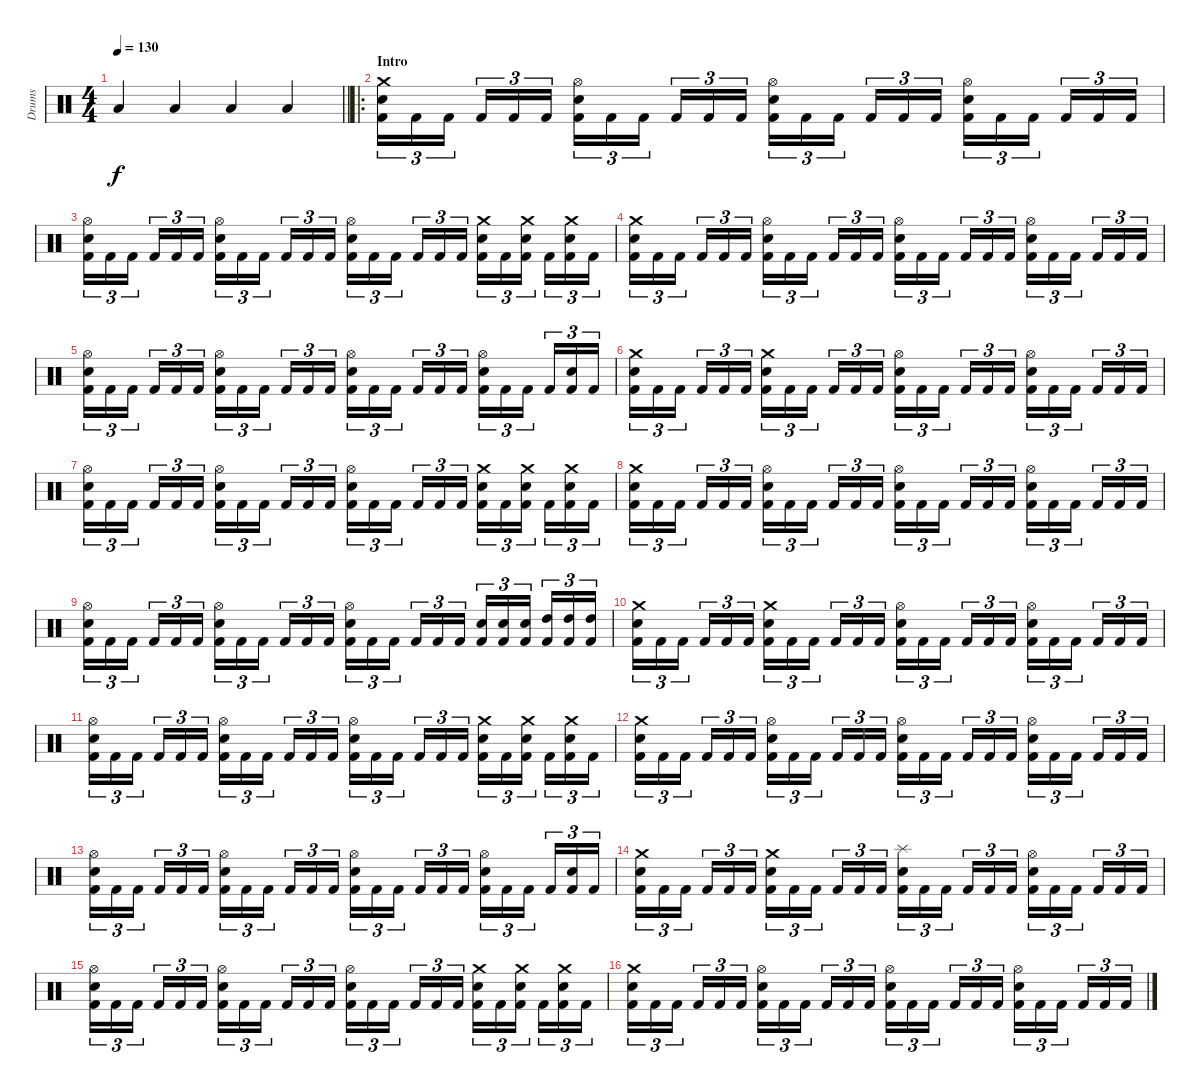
\track ("Drums" "Drums") {instrument percussion}
\staff {score}
\articulation defaults
\ts (4 4)
\tempo 130
\clef neutral
\barLineRight lightlight
\ks c "Low Floor Tom (hit)".4{dy f} "Low Floor Tom (hit)".4 "Low Floor Tom (hit)".4 "Low Floor Tom (hit)".4
|
\ro
\section ("" "Intro")
("Kick (hit) 2" "Electric Snare (hit)" "Crash medium (hit)").16{tu (3 2)} "Kick (hit) 2".16{tu (3 2)} "Kick (hit) 2".16{tu (3 2) beam splitsecondary} "Kick (hit) 2".16{tu (3 2)} "Kick (hit) 2".16{tu (3 2)} "Kick (hit) 2".16{tu (3 2)} ("Kick (hit) 2" "Electric Snare (hit)" "Hi-Hat (open)").16{tu (3 2)} "Kick (hit) 2".16{tu (3 2)} "Kick (hit) 2".16{tu (3 2) beam splitsecondary} "Kick (hit) 2".16{tu (3 2)} "Kick (hit) 2".16{tu (3 2)} "Kick (hit) 2".16{tu (3 2)} ("Kick (hit) 2" "Electric Snare (hit)" "Hi-Hat (open)").16{tu (3 2)} "Kick (hit) 2".16{tu (3 2)} "Kick (hit) 2".16{tu (3 2) beam splitsecondary} "Kick (hit) 2".16{tu (3 2)} "Kick (hit) 2".16{tu (3 2)} "Kick (hit) 2".16{tu (3 2)} ("Kick (hit) 2" "Electric Snare (hit)" "Hi-Hat (open)").16{tu (3 2)} "Kick (hit) 2".16{tu (3 2)} "Kick (hit) 2".16{tu (3 2) beam splitsecondary} "Kick (hit) 2".16{tu (3 2)} "Kick (hit) 2".16{tu (3 2)} "Kick (hit) 2".16{tu (3 2)} |
("Kick (hit) 2" "Electric Snare (hit)" "Hi-Hat (open)").16{tu (3 2)} "Kick (hit) 2".16{tu (3 2)} "Kick (hit) 2".16{tu (3 2) beam splitsecondary} "Kick (hit) 2".16{tu (3 2)} "Kick (hit) 2".16{tu (3 2)} "Kick (hit) 2".16{tu (3 2)} ("Kick (hit) 2" "Electric Snare (hit)" "Hi-Hat (open)").16{tu (3 2)} "Kick (hit) 2".16{tu (3 2)} "Kick (hit) 2".16{tu (3 2) beam splitsecondary} "Kick (hit) 2".16{tu (3 2)} "Kick (hit) 2".16{tu (3 2)} "Kick (hit) 2".16{tu (3 2)} ("Kick (hit) 2" "Electric Snare (hit)" "Hi-Hat (open)").16{tu (3 2)} "Kick (hit) 2".16{tu (3 2)} "Kick (hit) 2".16{tu (3 2) beam splitsecondary} "Kick (hit) 2".16{tu (3 2)} "Kick (hit) 2".16{tu (3 2)} "Kick (hit) 2".16{tu (3 2)} ("Kick (hit) 2" "Electric Snare (hit)" "Crash medium (hit)").16{tu (3 2)} "Kick (hit) 2".16{tu (3 2)} ("Kick (hit) 2" "Electric Snare (hit)" "Crash medium (hit)").16{tu (3 2) beam splitsecondary} "Kick (hit) 2".16{tu (3 2)} ("Kick (hit) 2" "Electric Snare (hit)" "Crash medium (hit)").16{tu (3 2)} "Kick (hit) 2".16{tu (3 2)} |
("Kick (hit) 2" "Electric Snare (hit)" "Crash medium (hit)").16{tu (3 2)} "Kick (hit) 2".16{tu (3 2)} "Kick (hit) 2".16{tu (3 2) beam splitsecondary} "Kick (hit) 2".16{tu (3 2)} "Kick (hit) 2".16{tu (3 2)} "Kick (hit) 2".16{tu (3 2)} ("Kick (hit) 2" "Electric Snare (hit)" "Hi-Hat (open)").16{tu (3 2)} "Kick (hit) 2".16{tu (3 2)} "Kick (hit) 2".16{tu (3 2) beam splitsecondary} "Kick (hit) 2".16{tu (3 2)} "Kick (hit) 2".16{tu (3 2)} "Kick (hit) 2".16{tu (3 2)} ("Kick (hit) 2" "Electric Snare (hit)" "Hi-Hat (open)").16{tu (3 2)} "Kick (hit) 2".16{tu (3 2)} "Kick (hit) 2".16{tu (3 2) beam splitsecondary} "Kick (hit) 2".16{tu (3 2)} "Kick (hit) 2".16{tu (3 2)} "Kick (hit) 2".16{tu (3 2)} ("Kick (hit) 2" "Electric Snare (hit)" "Hi-Hat (open)").16{tu (3 2)} "Kick (hit) 2".16{tu (3 2)} "Kick (hit) 2".16{tu (3 2) beam splitsecondary} "Kick (hit) 2".16{tu (3 2)} "Kick (hit) 2".16{tu (3 2)} "Kick (hit) 2".16{tu (3 2)} |
("Kick (hit) 2" "Electric Snare (hit)" "Hi-Hat (open)").16{tu (3 2)} "Kick (hit) 2".16{tu (3 2)} "Kick (hit) 2".16{tu (3 2) beam splitsecondary} "Kick (hit) 2".16{tu (3 2)} "Kick (hit) 2".16{tu (3 2)} "Kick (hit) 2".16{tu (3 2)} ("Kick (hit) 2" "Electric Snare (hit)" "Hi-Hat (open)").16{tu (3 2)} "Kick (hit) 2".16{tu (3 2)} "Kick (hit) 2".16{tu (3 2) beam splitsecondary} "Kick (hit) 2".16{tu (3 2)} "Kick (hit) 2".16{tu (3 2)} "Kick (hit) 2".16{tu (3 2)} ("Kick (hit) 2" "Electric Snare (hit)" "Hi-Hat (open)").16{tu (3 2)} "Kick (hit) 2".16{tu (3 2)} "Kick (hit) 2".16{tu (3 2) beam splitsecondary} "Kick (hit) 2".16{tu (3 2)} "Kick (hit) 2".16{tu (3 2)} "Kick (hit) 2".16{tu (3 2)} ("Kick (hit) 2" "Electric Snare (hit)" "Hi-Hat (open)").16{tu (3 2)} "Kick (hit) 2".16{tu (3 2)} "Kick (hit) 2".16{tu (3 2) beam splitsecondary} "Kick (hit) 2".16{tu (3 2)} ("Kick (hit) 2" "Electric Snare (hit)").16{tu (3 2)} "Kick (hit) 2".16{tu (3 2)} |
("Kick (hit) 2" "Electric Snare (hit)" "Crash medium (hit)").16{tu (3 2)} "Kick (hit) 2".16{tu (3 2)} "Kick (hit) 2".16{tu (3 2) beam splitsecondary} "Kick (hit) 2".16{tu (3 2)} "Kick (hit) 2".16{tu (3 2)} "Kick (hit) 2".16{tu (3 2)} ("Kick (hit) 2" "Electric Snare (hit)" "Crash medium (hit)").16{tu (3 2)} "Kick (hit) 2".16{tu (3 2)} "Kick (hit) 2".16{tu (3 2) beam splitsecondary} "Kick (hit) 2".16{tu (3 2)} "Kick (hit) 2".16{tu (3 2)} "Kick (hit) 2".16{tu (3 2)} ("Kick (hit) 2" "Electric Snare (hit)" "Hi-Hat (open)").16{tu (3 2)} "Kick (hit) 2".16{tu (3 2)} "Kick (hit) 2".16{tu (3 2) beam splitsecondary} "Kick (hit) 2".16{tu (3 2)} "Kick (hit) 2".16{tu (3 2)} "Kick (hit) 2".16{tu (3 2)} ("Kick (hit) 2" "Electric Snare (hit)" "Hi-Hat (open)").16{tu (3 2)} "Kick (hit) 2".16{tu (3 2)} "Kick (hit) 2".16{tu (3 2) beam splitsecondary} "Kick (hit) 2".16{tu (3 2)} "Kick (hit) 2".16{tu (3 2)} "Kick (hit) 2".16{tu (3 2)} |
("Kick (hit) 2" "Electric Snare (hit)" "Hi-Hat (open)").16{tu (3 2)} "Kick (hit) 2".16{tu (3 2)} "Kick (hit) 2".16{tu (3 2) beam splitsecondary} "Kick (hit) 2".16{tu (3 2)} "Kick (hit) 2".16{tu (3 2)} "Kick (hit) 2".16{tu (3 2)} ("Kick (hit) 2" "Electric Snare (hit)" "Hi-Hat (open)").16{tu (3 2)} "Kick (hit) 2".16{tu (3 2)} "Kick (hit) 2".16{tu (3 2) beam splitsecondary} "Kick (hit) 2".16{tu (3 2)} "Kick (hit) 2".16{tu (3 2)} "Kick (hit) 2".16{tu (3 2)} ("Kick (hit) 2" "Electric Snare (hit)" "Hi-Hat (open)").16{tu (3 2)} "Kick (hit) 2".16{tu (3 2)} "Kick (hit) 2".16{tu (3 2) beam splitsecondary} "Kick (hit) 2".16{tu (3 2)} "Kick (hit) 2".16{tu (3 2)} "Kick (hit) 2".16{tu (3 2)} ("Kick (hit) 2" "Electric Snare (hit)" "Crash medium (hit)").16{tu (3 2)} "Kick (hit) 2".16{tu (3 2)} ("Kick (hit) 2" "Electric Snare (hit)" "Crash medium (hit)").16{tu (3 2) beam splitsecondary} "Kick (hit) 2".16{tu (3 2)} ("Kick (hit) 2" "Electric Snare (hit)" "Crash medium (hit)").16{tu (3 2)} "Kick (hit) 2".16{tu (3 2)} |
("Kick (hit) 2" "Electric Snare (hit)" "Crash medium (hit)").16{tu (3 2)} "Kick (hit) 2".16{tu (3 2)} "Kick (hit) 2".16{tu (3 2) beam splitsecondary} "Kick (hit) 2".16{tu (3 2)} "Kick (hit) 2".16{tu (3 2)} "Kick (hit) 2".16{tu (3 2)} ("Kick (hit) 2" "Electric Snare (hit)" "Hi-Hat (open)").16{tu (3 2)} "Kick (hit) 2".16{tu (3 2)} "Kick (hit) 2".16{tu (3 2) beam splitsecondary} "Kick (hit) 2".16{tu (3 2)} "Kick (hit) 2".16{tu (3 2)} "Kick (hit) 2".16{tu (3 2)} ("Kick (hit) 2" "Electric Snare (hit)" "Hi-Hat (open)").16{tu (3 2)} "Kick (hit) 2".16{tu (3 2)} "Kick (hit) 2".16{tu (3 2) beam splitsecondary} "Kick (hit) 2".16{tu (3 2)} "Kick (hit) 2".16{tu (3 2)} "Kick (hit) 2".16{tu (3 2)} ("Kick (hit) 2" "Electric Snare (hit)" "Hi-Hat (open)").16{tu (3 2)} "Kick (hit) 2".16{tu (3 2)} "Kick (hit) 2".16{tu (3 2) beam splitsecondary} "Kick (hit) 2".16{tu (3 2)} "Kick (hit) 2".16{tu (3 2)} "Kick (hit) 2".16{tu (3 2)} |
("Kick (hit) 2" "Electric Snare (hit)" "Hi-Hat (open)").16{tu (3 2)} "Kick (hit) 2".16{tu (3 2)} "Kick (hit) 2".16{tu (3 2) beam splitsecondary} "Kick (hit) 2".16{tu (3 2)} "Kick (hit) 2".16{tu (3 2)} "Kick (hit) 2".16{tu (3 2)} ("Kick (hit) 2" "Electric Snare (hit)" "Hi-Hat (open)").16{tu (3 2)} "Kick (hit) 2".16{tu (3 2)} "Kick (hit) 2".16{tu (3 2) beam splitsecondary} "Kick (hit) 2".16{tu (3 2)} "Kick (hit) 2".16{tu (3 2)} "Kick (hit) 2".16{tu (3 2)} ("Kick (hit) 2" "Electric Snare (hit)" "Hi-Hat (open)").16{tu (3 2)} "Kick (hit) 2".16{tu (3 2)} "Kick (hit) 2".16{tu (3 2) beam splitsecondary} "Kick (hit) 2".16{tu (3 2)} "Kick (hit) 2".16{tu (3 2)} "Kick (hit) 2".16{tu (3 2)} ("Kick (hit) 2" "Electric Snare (hit)").16{tu (3 2)} ("Kick (hit) 2" "Electric Snare (hit)").16{tu (3 2)} ("Kick (hit) 2" "Electric Snare (hit)").16{tu (3 2) beam splitsecondary} ("Kick (hit) 2" "High Tom (hit)").16{tu (3 2)} ("Kick (hit) 2" "High Tom (hit)").16{tu (3 2)} ("Kick (hit) 2" "High Tom (hit)").16{tu (3 2)} |
("Kick (hit) 2" "Electric Snare (hit)" "Crash medium (hit)").16{tu (3 2)} "Kick (hit) 2".16{tu (3 2)} "Kick (hit) 2".16{tu (3 2) beam splitsecondary} "Kick (hit) 2".16{tu (3 2)} "Kick (hit) 2".16{tu (3 2)} "Kick (hit) 2".16{tu (3 2)} ("Kick (hit) 2" "Electric Snare (hit)" "Crash medium (hit)").16{tu (3 2)} "Kick (hit) 2".16{tu (3 2)} "Kick (hit) 2".16{tu (3 2) beam splitsecondary} "Kick (hit) 2".16{tu (3 2)} "Kick (hit) 2".16{tu (3 2)} "Kick (hit) 2".16{tu (3 2)} ("Kick (hit) 2" "Electric Snare (hit)" "Hi-Hat (open)").16{tu (3 2)} "Kick (hit) 2".16{tu (3 2)} "Kick (hit) 2".16{tu (3 2) beam splitsecondary} "Kick (hit) 2".16{tu (3 2)} "Kick (hit) 2".16{tu (3 2)} "Kick (hit) 2".16{tu (3 2)} ("Kick (hit) 2" "Electric Snare (hit)" "Hi-Hat (open)").16{tu (3 2)} "Kick (hit) 2".16{tu (3 2)} "Kick (hit) 2".16{tu (3 2) beam splitsecondary} "Kick (hit) 2".16{tu (3 2)} "Kick (hit) 2".16{tu (3 2)} "Kick (hit) 2".16{tu (3 2)} |
("Kick (hit) 2" "Electric Snare (hit)" "Hi-Hat (open)").16{tu (3 2)} "Kick (hit) 2".16{tu (3 2)} "Kick (hit) 2".16{tu (3 2) beam splitsecondary} "Kick (hit) 2".16{tu (3 2)} "Kick (hit) 2".16{tu (3 2)} "Kick (hit) 2".16{tu (3 2)} ("Kick (hit) 2" "Electric Snare (hit)" "Hi-Hat (open)").16{tu (3 2)} "Kick (hit) 2".16{tu (3 2)} "Kick (hit) 2".16{tu (3 2) beam splitsecondary} "Kick (hit) 2".16{tu (3 2)} "Kick (hit) 2".16{tu (3 2)} "Kick (hit) 2".16{tu (3 2)} ("Kick (hit) 2" "Electric Snare (hit)" "Hi-Hat (open)").16{tu (3 2)} "Kick (hit) 2".16{tu (3 2)} "Kick (hit) 2".16{tu (3 2) beam splitsecondary} "Kick (hit) 2".16{tu (3 2)} "Kick (hit) 2".16{tu (3 2)} "Kick (hit) 2".16{tu (3 2)} ("Kick (hit) 2" "Electric Snare (hit)" "Crash medium (hit)").16{tu (3 2)} "Kick (hit) 2".16{tu (3 2)} ("Kick (hit) 2" "Electric Snare (hit)" "Crash medium (hit)").16{tu (3 2) beam splitsecondary} "Kick (hit) 2".16{tu (3 2)} ("Kick (hit) 2" "Electric Snare (hit)" "Crash medium (hit)").16{tu (3 2)} "Kick (hit) 2".16{tu (3 2)} |
("Kick (hit) 2" "Electric Snare (hit)" "Crash medium (hit)").16{tu (3 2)} "Kick (hit) 2".16{tu (3 2)} "Kick (hit) 2".16{tu (3 2) beam splitsecondary} "Kick (hit) 2".16{tu (3 2)} "Kick (hit) 2".16{tu (3 2)} "Kick (hit) 2".16{tu (3 2)} ("Kick (hit) 2" "Electric Snare (hit)" "Hi-Hat (open)").16{tu (3 2)} "Kick (hit) 2".16{tu (3 2)} "Kick (hit) 2".16{tu (3 2) beam splitsecondary} "Kick (hit) 2".16{tu (3 2)} "Kick (hit) 2".16{tu (3 2)} "Kick (hit) 2".16{tu (3 2)} ("Kick (hit) 2" "Electric Snare (hit)" "Hi-Hat (open)").16{tu (3 2)} "Kick (hit) 2".16{tu (3 2)} "Kick (hit) 2".16{tu (3 2) beam splitsecondary} "Kick (hit) 2".16{tu (3 2)} "Kick (hit) 2".16{tu (3 2)} "Kick (hit) 2".16{tu (3 2)} ("Kick (hit) 2" "Electric Snare (hit)" "Hi-Hat (open)").16{tu (3 2)} "Kick (hit) 2".16{tu (3 2)} "Kick (hit) 2".16{tu (3 2) beam splitsecondary} "Kick (hit) 2".16{tu (3 2)} "Kick (hit) 2".16{tu (3 2)} "Kick (hit) 2".16{tu (3 2)} |
("Kick (hit) 2" "Electric Snare (hit)" "Hi-Hat (open)").16{tu (3 2)} "Kick (hit) 2".16{tu (3 2)} "Kick (hit) 2".16{tu (3 2) beam splitsecondary} "Kick (hit) 2".16{tu (3 2)} "Kick (hit) 2".16{tu (3 2)} "Kick (hit) 2".16{tu (3 2)} ("Kick (hit) 2" "Electric Snare (hit)" "Hi-Hat (open)").16{tu (3 2)} "Kick (hit) 2".16{tu (3 2)} "Kick (hit) 2".16{tu (3 2) beam splitsecondary} "Kick (hit) 2".16{tu (3 2)} "Kick (hit) 2".16{tu (3 2)} "Kick (hit) 2".16{tu (3 2)} ("Kick (hit) 2" "Electric Snare (hit)" "Hi-Hat (open)").16{tu (3 2)} "Kick (hit) 2".16{tu (3 2)} "Kick (hit) 2".16{tu (3 2) beam splitsecondary} "Kick (hit) 2".16{tu (3 2)} "Kick (hit) 2".16{tu (3 2)} "Kick (hit) 2".16{tu (3 2)} ("Kick (hit) 2" "Electric Snare (hit)" "Hi-Hat (open)").16{tu (3 2)} "Kick (hit) 2".16{tu (3 2)} "Kick (hit) 2".16{tu (3 2) beam splitsecondary} "Kick (hit) 2".16{tu (3 2)} ("Kick (hit) 2" "Electric Snare (hit)").16{tu (3 2)} "Kick (hit) 2".16{tu (3 2)} |
("Kick (hit) 2" "Electric Snare (hit)" "Crash medium (hit)").16{tu (3 2)} "Kick (hit) 2".16{tu (3 2)} "Kick (hit) 2".16{tu (3 2) beam splitsecondary} "Kick (hit) 2".16{tu (3 2)} "Kick (hit) 2".16{tu (3 2)} "Kick (hit) 2".16{tu (3 2)} ("Kick (hit) 2" "Electric Snare (hit)" "Crash medium (hit)").16{tu (3 2)} "Kick (hit) 2".16{tu (3 2)} "Kick (hit) 2".16{tu (3 2) beam splitsecondary} "Kick (hit) 2".16{tu (3 2)} "Kick (hit) 2".16{tu (3 2)} "Kick (hit) 2".16{tu (3 2)} ("Kick (hit) 2" "Electric Snare (hit)" "Splash (hit)").16{tu (3 2)} "Kick (hit) 2".16{tu (3 2)} "Kick (hit) 2".16{tu (3 2) beam splitsecondary} "Kick (hit) 2".16{tu (3 2)} "Kick (hit) 2".16{tu (3 2)} "Kick (hit) 2".16{tu (3 2)} ("Kick (hit) 2" "Electric Snare (hit)" "Hi-Hat (open)").16{tu (3 2)} "Kick (hit) 2".16{tu (3 2)} "Kick (hit) 2".16{tu (3 2) beam splitsecondary} "Kick (hit) 2".16{tu (3 2)} "Kick (hit) 2".16{tu (3 2)} "Kick (hit) 2".16{tu (3 2)} |
("Kick (hit) 2" "Electric Snare (hit)" "Hi-Hat (open)").16{tu (3 2)} "Kick (hit) 2".16{tu (3 2)} "Kick (hit) 2".16{tu (3 2) beam splitsecondary} "Kick (hit) 2".16{tu (3 2)} "Kick (hit) 2".16{tu (3 2)} "Kick (hit) 2".16{tu (3 2)} ("Kick (hit) 2" "Electric Snare (hit)" "Hi-Hat (open)").16{tu (3 2)} "Kick (hit) 2".16{tu (3 2)} "Kick (hit) 2".16{tu (3 2) beam splitsecondary} "Kick (hit) 2".16{tu (3 2)} "Kick (hit) 2".16{tu (3 2)} "Kick (hit) 2".16{tu (3 2)} ("Kick (hit) 2" "Electric Snare (hit)" "Hi-Hat (open)").16{tu (3 2)} "Kick (hit) 2".16{tu (3 2)} "Kick (hit) 2".16{tu (3 2) beam splitsecondary} "Kick (hit) 2".16{tu (3 2)} "Kick (hit) 2".16{tu (3 2)} "Kick (hit) 2".16{tu (3 2)} ("Kick (hit) 2" "Electric Snare (hit)" "Crash medium (hit)").16{tu (3 2)} "Kick (hit) 2".16{tu (3 2)} ("Kick (hit) 2" "Electric Snare (hit)" "Crash medium (hit)").16{tu (3 2) beam splitsecondary} "Kick (hit) 2".16{tu (3 2)} ("Kick (hit) 2" "Electric Snare (hit)" "Crash medium (hit)").16{tu (3 2)} "Kick (hit) 2".16{tu (3 2)} |
("Kick (hit) 2" "Electric Snare (hit)" "Crash medium (hit)").16{tu (3 2)} "Kick (hit) 2".16{tu (3 2)} "Kick (hit) 2".16{tu (3 2) beam splitsecondary} "Kick (hit) 2".16{tu (3 2)} "Kick (hit) 2".16{tu (3 2)} "Kick (hit) 2".16{tu (3 2)} ("Kick (hit) 2" "Electric Snare (hit)" "Hi-Hat (open)").16{tu (3 2)} "Kick (hit) 2".16{tu (3 2)} "Kick (hit) 2".16{tu (3 2) beam splitsecondary} "Kick (hit) 2".16{tu (3 2)} "Kick (hit) 2".16{tu (3 2)} "Kick (hit) 2".16{tu (3 2)} ("Kick (hit) 2" "Electric Snare (hit)" "Hi-Hat (open)").16{tu (3 2)} "Kick (hit) 2".16{tu (3 2)} "Kick (hit) 2".16{tu (3 2) beam splitsecondary} "Kick (hit) 2".16{tu (3 2)} "Kick (hit) 2".16{tu (3 2)} "Kick (hit) 2".16{tu (3 2)} ("Kick (hit) 2" "Electric Snare (hit)" "Hi-Hat (open)").16{tu (3 2)} "Kick (hit) 2".16{tu (3 2)} "Kick (hit) 2".16{tu (3 2) beam splitsecondary} "Kick (hit) 2".16{tu (3 2)} "Kick (hit) 2".16{tu (3 2)} "Kick (hit) 2".16{tu (3 2)}
